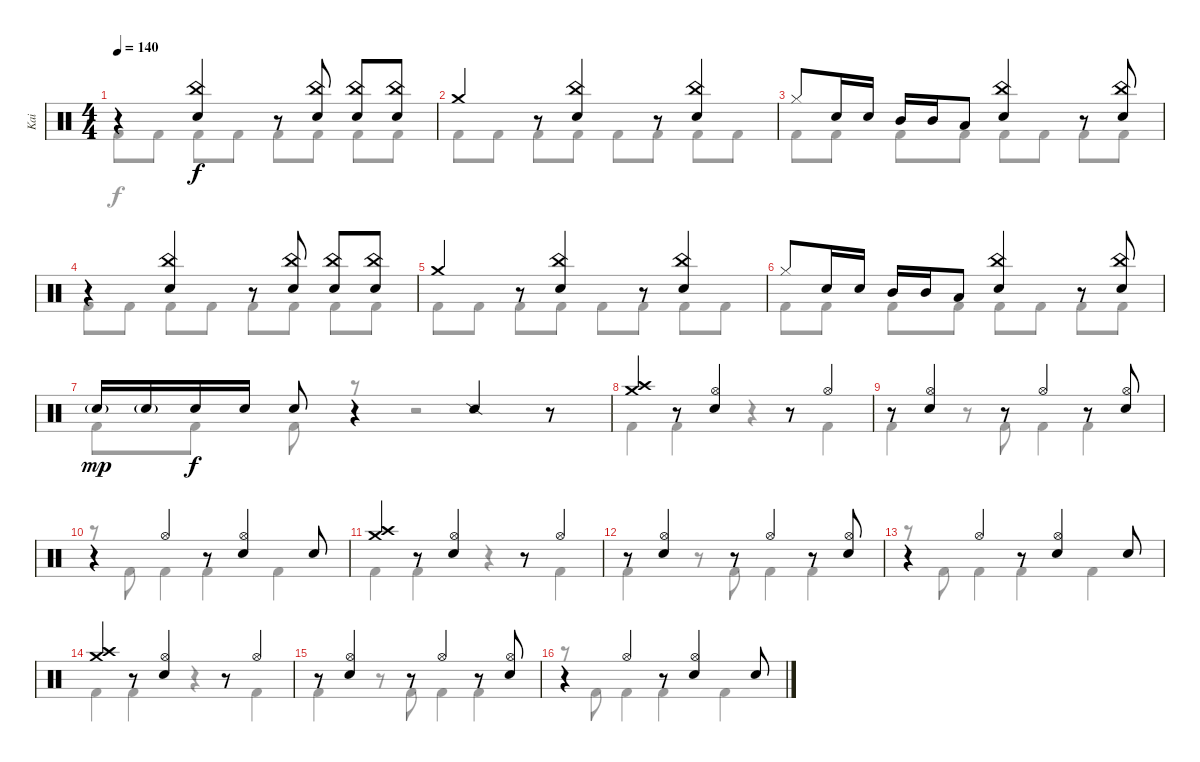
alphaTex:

\track ("Kai" "Kai") {instrument percussion}
\staff {score}
\articulation defaults
\voice
\ts (4 4)
\tempo 140
\clef neutral
\ks c
r.4{dy f} ("China (hit)" "Snare (hit) 2").4 r.8 ("China (hit)" "Snare (hit) 2").8 ("China (hit)" "Snare (hit) 2").8 ("China (hit)" "Snare (hit) 2").8 |
"Crash medium (hit)".4 r.8 ("China (hit)" "Snare (hit) 2").4 r.8 ("China (hit)" "Snare (hit) 2").4 |
"Hi-Hat (closed)".8 "Snare (hit) 2".16 "Snare (hit) 2".16 "Mid Tom (hit)".16 "Mid Tom (hit)".16 "Low Tom (hit)".8 ("China (hit)" "Snare (hit) 2").4 r.8 ("China (hit)" "Snare (hit) 2").8 |
r.4 ("China (hit)" "Snare (hit) 2").4 r.8 ("China (hit)" "Snare (hit) 2").8 ("China (hit)" "Snare (hit) 2").8 ("China (hit)" "Snare (hit) 2").8 |
"Crash medium (hit)".4 r.8 ("China (hit)" "Snare (hit) 2").4 r.8 ("China (hit)" "Snare (hit) 2").4 |
"Hi-Hat (closed)".8 "Snare (hit) 2".16 "Snare (hit) 2".16 "Mid Tom (hit)".16 "Mid Tom (hit)".16 "Low Tom (hit)".8 ("China (hit)" "Snare (hit) 2").4 r.8 ("China (hit)" "Snare (hit) 2").8 |
"Snare (hit) 2"{g}.16{dy mp} "Snare (hit) 2"{g}.16 "Snare (hit) 2".16{dy f} "Snare (hit) 2".16 "Snare (hit) 2".8 r.4 "Snare (side stick) 2".4 r.8 |
("Crash medium (hit)" "Crash high (hit)").4 r.8 ("Hi-Hat (open)" "Snare (hit) 2").4 r.8 "Hi-Hat (open)".4 |
r.8 ("Hi-Hat (open)" "Snare (hit) 2").4 r.8 "Hi-Hat (open)".4 r.8 ("Hi-Hat (open)" "Snare (hit) 2").8 |
r.4 "Hi-Hat (open)".4 r.8 ("Hi-Hat (open)" "Snare (hit) 2").4 "Snare (hit) 2".8 |
("Crash medium (hit)" "Crash high (hit)").4 r.8 ("Hi-Hat (open)" "Snare (hit) 2").4 r.8 "Hi-Hat (open)".4 |
r.8 ("Hi-Hat (open)" "Snare (hit) 2").4 r.8 "Hi-Hat (open)".4 r.8 ("Hi-Hat (open)" "Snare (hit) 2").8 |
r.4 "Hi-Hat (open)".4 r.8 ("Hi-Hat (open)" "Snare (hit) 2").4 "Snare (hit) 2".8 |
("Crash medium (hit)" "Crash high (hit)").4 r.8 ("Hi-Hat (open)" "Snare (hit) 2").4 r.8 "Hi-Hat (open)".4 |
r.8 ("Hi-Hat (open)" "Snare (hit) 2").4 r.8 "Hi-Hat (open)".4 r.8 ("Hi-Hat (open)" "Snare (hit) 2").8 |
r.4 "Hi-Hat (open)".4 r.8 ("Hi-Hat (open)" "Snare (hit) 2").4 "Snare (hit) 2".8
\voice
\clef neutral
\ottava regular
\simile none
\ks c "Kick (hit) 2".8{dy f} "Kick (hit) 2".8 "Kick (hit) 2".8 "Kick (hit) 2".8 "Kick (hit) 2".8 "Kick (hit) 2".8 "Kick (hit) 2".8 "Kick (hit) 2".8
|
"Kick (hit) 2".8 "Kick (hit) 2".8 "Kick (hit) 2".8 "Kick (hit) 2".8 "Kick (hit) 2".8 "Kick (hit) 2".8 "Kick (hit) 2".8 "Kick (hit) 2".8 |
"Kick (hit) 2".8 "Kick (hit) 2".8 "Kick (hit) 2".8 "Kick (hit) 2".8 "Kick (hit) 2".8 "Kick (hit) 2".8 "Kick (hit) 2".8 "Kick (hit) 2".8 |
"Kick (hit) 2".8 "Kick (hit) 2".8 "Kick (hit) 2".8 "Kick (hit) 2".8 "Kick (hit) 2".8 "Kick (hit) 2".8 "Kick (hit) 2".8 "Kick (hit) 2".8 |
"Kick (hit) 2".8 "Kick (hit) 2".8 "Kick (hit) 2".8 "Kick (hit) 2".8 "Kick (hit) 2".8 "Kick (hit) 2".8 "Kick (hit) 2".8 "Kick (hit) 2".8 |
"Kick (hit) 2".8 "Kick (hit) 2".8 "Kick (hit) 2".8 "Kick (hit) 2".8 "Kick (hit) 2".8 "Kick (hit) 2".8 "Kick (hit) 2".8 "Kick (hit) 2".8 |
"Kick (hit) 2".8 "Kick (hit) 2".8 "Kick (hit) 2".8 r.8 r.2 |
"Kick (hit) 2".4 "Kick (hit) 2".4 r.4 "Kick (hit) 2".4 |
"Kick (hit) 2".4 r.8 "Kick (hit) 2".8 "Kick (hit) 2".4 "Kick (hit) 2".4 |
r.8 "Kick (hit) 2".8 "Kick (hit) 2".4 "Kick (hit) 2".4 "Kick (hit) 2".4 |
"Kick (hit) 2".4 "Kick (hit) 2".4 r.4 "Kick (hit) 2".4 |
"Kick (hit) 2".4 r.8 "Kick (hit) 2".8 "Kick (hit) 2".4 "Kick (hit) 2".4 |
r.8 "Kick (hit) 2".8 "Kick (hit) 2".4 "Kick (hit) 2".4 "Kick (hit) 2".4 |
"Kick (hit) 2".4 "Kick (hit) 2".4 r.4 "Kick (hit) 2".4 |
"Kick (hit) 2".4 r.8 "Kick (hit) 2".8 "Kick (hit) 2".4 "Kick (hit) 2".4 |
r.8 "Kick (hit) 2".8 "Kick (hit) 2".4 "Kick (hit) 2".4 "Kick (hit) 2".4
